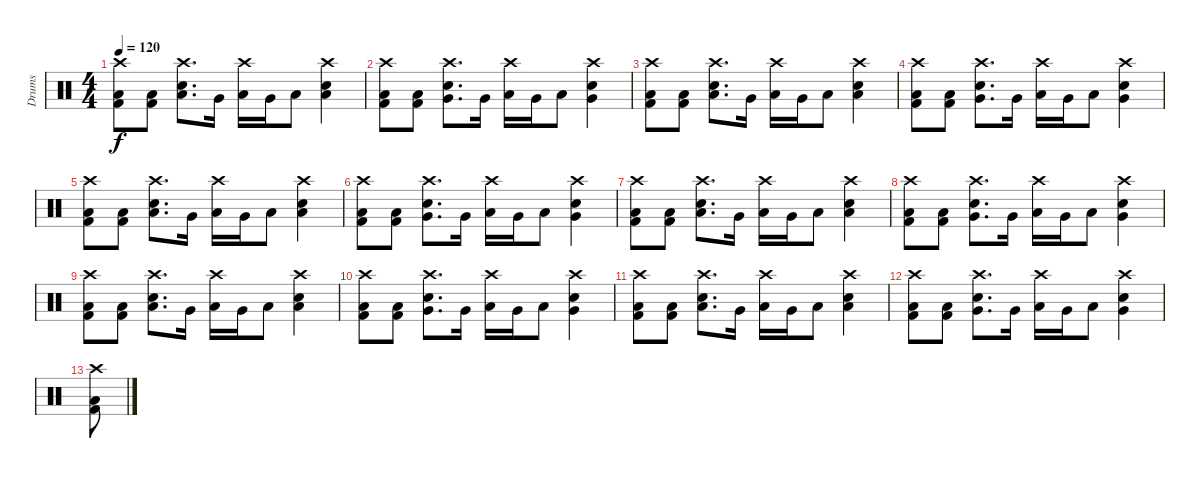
\track ("Drums" "Drums") {instrument percussion}
\staff {score}
\articulation defaults
\ts (4 4)
\tempo 120
\clef neutral
\ks c
("Low Floor Tom (hit)" "Kick (hit) 2" "Crash high (hit)").8{dy f} ("Low Floor Tom (hit)" "Kick (hit) 2").8 ("Low Tom (hit)" "Electric Snare (hit)" "Crash high (hit)").8{d} "Very Low Tom (hit)".16 ("Low Tom (hit)" "Crash high (hit)").16 "Very Low Tom (hit)".16 "Low Tom (hit)".8 ("Electric Snare (hit)" "Low Tom (hit)" "Crash high (hit)").4 |
("Low Floor Tom (hit)" "Kick (hit) 2" "Crash high (hit)").8 ("Low Floor Tom (hit)" "Kick (hit) 2").8 ("Very Low Tom (hit)" "Electric Snare (hit)" "Crash high (hit)").8{d} "Very Low Tom (hit)".16 ("Low Tom (hit)" "Crash high (hit)").16 "Very Low Tom (hit)".16 "Low Tom (hit)".8 ("Electric Snare (hit)" "Very Low Tom (hit)" "Crash high (hit)").4 |
("Low Floor Tom (hit)" "Kick (hit) 2" "Crash high (hit)").8 ("Low Floor Tom (hit)" "Kick (hit) 2").8 ("Low Tom (hit)" "Electric Snare (hit)" "Crash high (hit)").8{d} "Very Low Tom (hit)".16 ("Low Tom (hit)" "Crash high (hit)").16 "Very Low Tom (hit)".16 "Low Tom (hit)".8 ("Electric Snare (hit)" "Low Tom (hit)" "Crash high (hit)").4 |
("Low Floor Tom (hit)" "Kick (hit) 2" "Crash high (hit)").8 ("Low Floor Tom (hit)" "Kick (hit) 2").8 ("Very Low Tom (hit)" "Electric Snare (hit)" "Crash high (hit)").8{d} "Very Low Tom (hit)".16 ("Low Tom (hit)" "Crash high (hit)").16 "Very Low Tom (hit)".16 "Low Tom (hit)".8 ("Electric Snare (hit)" "Very Low Tom (hit)" "Crash high (hit)").4 |
("Low Floor Tom (hit)" "Kick (hit) 2" "Crash high (hit)").8 ("Low Floor Tom (hit)" "Kick (hit) 2").8 ("Low Tom (hit)" "Electric Snare (hit)" "Crash high (hit)").8{d} "Very Low Tom (hit)".16 ("Low Tom (hit)" "Crash high (hit)").16 "Very Low Tom (hit)".16 "Low Tom (hit)".8 ("Electric Snare (hit)" "Low Tom (hit)" "Crash high (hit)").4 |
("Low Floor Tom (hit)" "Kick (hit) 2" "Crash high (hit)").8 ("Low Floor Tom (hit)" "Kick (hit) 2").8 ("Very Low Tom (hit)" "Electric Snare (hit)" "Crash high (hit)").8{d} "Very Low Tom (hit)".16 ("Low Tom (hit)" "Crash high (hit)").16 "Very Low Tom (hit)".16 "Low Tom (hit)".8 ("Electric Snare (hit)" "Very Low Tom (hit)" "Crash high (hit)").4 |
("Low Floor Tom (hit)" "Kick (hit) 2" "Crash high (hit)").8 ("Low Floor Tom (hit)" "Kick (hit) 2").8 ("Low Tom (hit)" "Electric Snare (hit)" "Crash high (hit)").8{d} "Very Low Tom (hit)".16 ("Low Tom (hit)" "Crash high (hit)").16 "Very Low Tom (hit)".16 "Low Tom (hit)".8 ("Electric Snare (hit)" "Low Tom (hit)" "Crash high (hit)").4 |
("Low Floor Tom (hit)" "Kick (hit) 2" "Crash high (hit)").8 ("Low Floor Tom (hit)" "Kick (hit) 2").8 ("Very Low Tom (hit)" "Electric Snare (hit)" "Crash high (hit)").8{d} "Very Low Tom (hit)".16 ("Low Tom (hit)" "Crash high (hit)").16 "Very Low Tom (hit)".16 "Low Tom (hit)".8 ("Electric Snare (hit)" "Very Low Tom (hit)" "Crash high (hit)").4 |
("Low Floor Tom (hit)" "Kick (hit) 2" "Crash high (hit)").8 ("Low Floor Tom (hit)" "Kick (hit) 2").8 ("Low Tom (hit)" "Electric Snare (hit)" "Crash high (hit)").8{d} "Very Low Tom (hit)".16 ("Low Tom (hit)" "Crash high (hit)").16 "Very Low Tom (hit)".16 "Low Tom (hit)".8 ("Electric Snare (hit)" "Low Tom (hit)" "Crash high (hit)").4 |
("Low Floor Tom (hit)" "Kick (hit) 2" "Crash high (hit)").8 ("Low Floor Tom (hit)" "Kick (hit) 2").8 ("Very Low Tom (hit)" "Electric Snare (hit)" "Crash high (hit)").8{d} "Very Low Tom (hit)".16 ("Low Tom (hit)" "Crash high (hit)").16 "Very Low Tom (hit)".16 "Low Tom (hit)".8 ("Electric Snare (hit)" "Very Low Tom (hit)" "Crash high (hit)").4 |
("Low Floor Tom (hit)" "Kick (hit) 2" "Crash high (hit)").8 ("Low Floor Tom (hit)" "Kick (hit) 2").8 ("Low Tom (hit)" "Electric Snare (hit)" "Crash high (hit)").8{d} "Very Low Tom (hit)".16 ("Low Tom (hit)" "Crash high (hit)").16 "Very Low Tom (hit)".16 "Low Tom (hit)".8 ("Electric Snare (hit)" "Low Tom (hit)" "Crash high (hit)").4 |
("Low Floor Tom (hit)" "Kick (hit) 2" "Crash high (hit)").8 ("Low Floor Tom (hit)" "Kick (hit) 2").8 ("Very Low Tom (hit)" "Electric Snare (hit)" "Crash high (hit)").8{d} "Very Low Tom (hit)".16 ("Low Tom (hit)" "Crash high (hit)").16 "Very Low Tom (hit)".16 "Low Tom (hit)".8 ("Electric Snare (hit)" "Very Low Tom (hit)" "Crash high (hit)").4 |
("Low Floor Tom (hit)" "Kick (hit) 2" "Crash high (hit)").8
